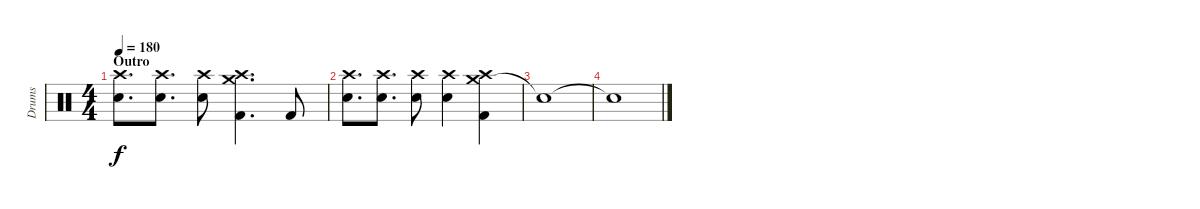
\track ("Drums" "Drums") {instrument percussion}
\staff {score}
\articulation defaults
\ts (4 4)
\section ("" "Outro")
\tempo 180
\clef neutral
\ks c
("Crash high (hit)" "Electric Snare (hit)").8{d dy f} ("Crash high (hit)" "Electric Snare (hit)").8{d} ("Crash high (hit)" "Electric Snare (hit)").8 ("Crash medium (hit)" "Crash high (hit)" "Kick (hit) 2").4{d} "Kick (hit) 2".8 |
("Crash high (hit)" "Electric Snare (hit)").8{d} ("Crash high (hit)" "Electric Snare (hit)").8{d} ("Crash high (hit)" "Electric Snare (hit)").8 ("Crash high (hit)" "Electric Snare (hit)").4 ("Crash medium (hit)" "Crash high (hit)" "Kick (hit) 2").4 |
"Snare (hit)"{t}.1 |
"Snare (hit)"{t}.1
